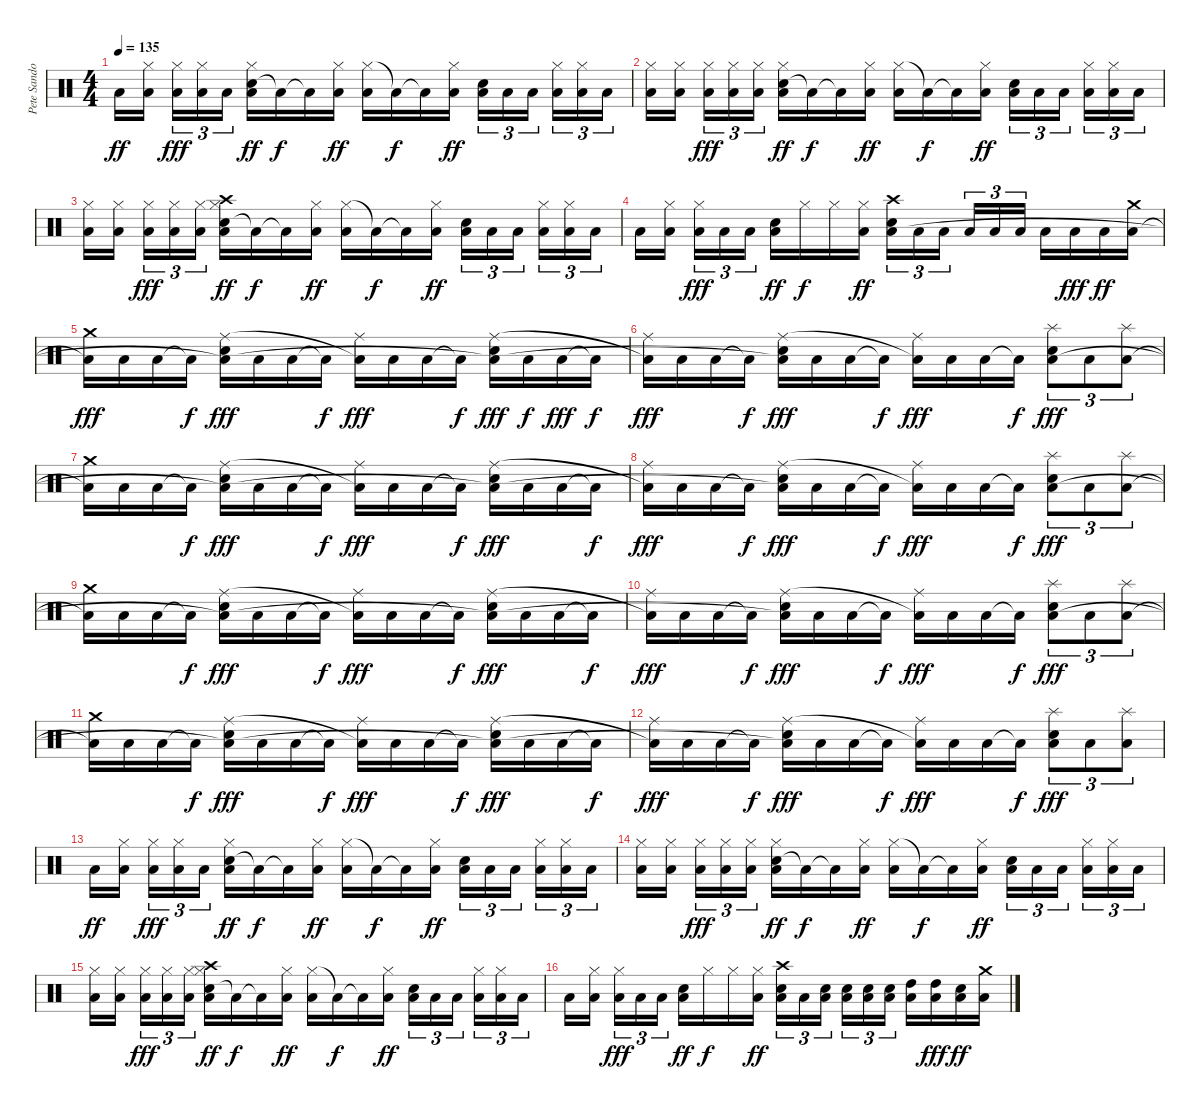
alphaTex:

\track ("Pete Sandoval" "Pete Sando") {instrument percussion}
\staff {score}
\articulation defaults
\ts (4 4)
\tempo 135
\clef neutral
\ks c "Low Floor Tom (hit)".16{dy ff}
("Hi-Hat (closed)" "Low Floor Tom (hit)").16{beam splitsecondary} ("Hi-Hat (closed)" "Low Floor Tom (hit)").16{tu (3 2) dy fff} ("Hi-Hat (closed)" "Low Floor Tom (hit)").16{tu (3 2)} "Low Floor Tom (hit)".16{tu (3 2)} ("Electric Snare (hit)" "Hi-Hat (closed)" "Low Floor Tom (hit)").16{dy ff} "Low Floor Tom (hit)"{t}.16{dy f} "Low Floor Tom (hit)"{t}.16 ("Hi-Hat (closed)" "Low Floor Tom (hit)").16{dy ff} ("Hi-Hat (closed)" "Low Floor Tom (hit)").16 "Low Floor Tom (hit)"{t}.16{dy f} "Low Floor Tom (hit)"{t}.16 ("Hi-Hat (closed)" "Low Floor Tom (hit)").16{dy ff} ("Electric Snare (hit)" "Low Floor Tom (hit)").16{tu (3 2)} "Low Floor Tom (hit)".16{tu (3 2)} "Low Floor Tom (hit)".16{tu (3 2) beam splitsecondary} ("Hi-Hat (closed)" "Low Floor Tom (hit)").16{tu (3 2)} ("Hi-Hat (closed)" "Low Floor Tom (hit)").16{tu (3 2)} "Low Floor Tom (hit)".16{tu (3 2)} |
("Hi-Hat (closed)" "Low Floor Tom (hit)").16 ("Hi-Hat (closed)" "Low Floor Tom (hit)").16{beam splitsecondary} ("Hi-Hat (closed)" "Low Floor Tom (hit)").16{tu (3 2) dy fff} ("Hi-Hat (closed)" "Low Floor Tom (hit)").16{tu (3 2)} ("Hi-Hat (closed)" "Low Floor Tom (hit)").16{tu (3 2)} ("Electric Snare (hit)" "Hi-Hat (closed)" "Low Floor Tom (hit)").16{dy ff} "Low Floor Tom (hit)"{t}.16{dy f} "Low Floor Tom (hit)"{t}.16 ("Hi-Hat (closed)" "Low Floor Tom (hit)").16{dy ff} ("Hi-Hat (closed)" "Low Floor Tom (hit)").16 "Low Floor Tom (hit)"{t}.16{dy f} "Low Floor Tom (hit)"{t}.16 ("Hi-Hat (closed)" "Low Floor Tom (hit)").16{dy ff} ("Electric Snare (hit)" "Low Floor Tom (hit)").16{tu (3 2)} "Low Floor Tom (hit)".16{tu (3 2)} "Low Floor Tom (hit)".16{tu (3 2) beam splitsecondary} ("Hi-Hat (closed)" "Low Floor Tom (hit)").16{tu (3 2)} ("Hi-Hat (closed)" "Low Floor Tom (hit)").16{tu (3 2)} "Low Floor Tom (hit)".16{tu (3 2)} |
("Hi-Hat (closed)" "Low Floor Tom (hit)").16 ("Hi-Hat (closed)" "Low Floor Tom (hit)").16{beam splitsecondary} ("Hi-Hat (closed)" "Low Floor Tom (hit)").16{tu (3 2) dy fff} ("Hi-Hat (closed)" "Low Floor Tom (hit)").16{tu (3 2)} ("Hi-Hat (closed)" "Low Floor Tom (hit)").16{tu (3 2)} ("Electric Snare (hit)" "Crash high (hit)" "Hi-Hat (closed)" "Low Floor Tom (hit)").16{dy ff} "Low Floor Tom (hit)"{t}.16{dy f} "Low Floor Tom (hit)"{t}.16 ("Hi-Hat (closed)" "Low Floor Tom (hit)").16{dy ff} ("Hi-Hat (closed)" "Low Floor Tom (hit)").16 "Low Floor Tom (hit)"{t}.16{dy f} "Low Floor Tom (hit)"{t}.16 ("Hi-Hat (closed)" "Low Floor Tom (hit)").16{dy ff} ("Electric Snare (hit)" "Low Floor Tom (hit)").16{tu (3 2)} "Low Floor Tom (hit)".16{tu (3 2)} "Low Floor Tom (hit)".16{tu (3 2) beam splitsecondary} ("Hi-Hat (closed)" "Low Floor Tom (hit)").16{tu (3 2)} ("Hi-Hat (closed)" "Low Floor Tom (hit)").16{tu (3 2)} "Low Floor Tom (hit)".16{tu (3 2)} |
"Low Floor Tom (hit)".16 ("Hi-Hat (closed)" "Low Floor Tom (hit)").16{beam splitsecondary} ("Hi-Hat (closed)" "Low Floor Tom (hit)").16{tu (3 2) dy fff} "Low Floor Tom (hit)".16{tu (3 2)} "Low Floor Tom (hit)".16{tu (3 2)} ("Electric Snare (hit)" "Low Floor Tom (hit)").16{dy ff} "Hi-Hat (closed)".16{dy f} "Hi-Hat (closed)".16 ("Hi-Hat (closed)" "Low Floor Tom (hit)").16{dy ff} ("Electric Snare (hit)" "Crash high (hit)" "Low Floor Tom (hit)").16{tu (3 2)} "Low Floor Tom (hit)".16{tu (3 2)} "Low Floor Tom (hit)".16{tu (3 2) beam splitsecondary} "Low Floor Tom (hit)".16{tu (3 2)} "Low Floor Tom (hit)".16{tu (3 2)} "Low Floor Tom (hit)".16{tu (3 2)} "Low Floor Tom (hit)".16 "Low Floor Tom (hit)".16{dy fff} "Low Floor Tom (hit)".16{dy ff} ("Crash medium (hit)" "Low Floor Tom (hit)").16 |
("Crash medium (hit)" "Low Floor Tom (hit)"{t}).16{dy fff} "Low Floor Tom (hit)".16 "Low Floor Tom (hit)".16 "Low Floor Tom (hit)"{t}.16{dy f} ("Electric Snare (hit)" "Ride (middle)" "Low Floor Tom (hit)"{t}).16{dy fff} "Low Floor Tom (hit)".16 "Low Floor Tom (hit)".16 "Low Floor Tom (hit)"{t}.16{dy f} ("Ride (middle)" "Low Floor Tom (hit)"{t}).16{dy fff} "Low Floor Tom (hit)".16 "Low Floor Tom (hit)".16 "Low Floor Tom (hit)"{t}.16{dy f} ("Electric Snare (hit)" "Ride (middle)" "Low Floor Tom (hit)"{t}).16{dy fff} "Low Floor Tom (hit)".16{dy f} "Low Floor Tom (hit)".16{dy fff} "Low Floor Tom (hit)"{t}.16{dy f} |
("Ride (middle)" "Low Floor Tom (hit)"{t}).16{dy fff} "Low Floor Tom (hit)".16 "Low Floor Tom (hit)".16 "Low Floor Tom (hit)"{t}.16{dy f} ("Electric Snare (hit)" "Ride (middle)" "Low Floor Tom (hit)"{t}).16{dy fff} "Low Floor Tom (hit)".16 "Low Floor Tom (hit)".16 "Low Floor Tom (hit)"{t}.16{dy f} ("Ride (middle)" "Low Floor Tom (hit)"{t}).16{dy fff} "Low Floor Tom (hit)".16 "Low Floor Tom (hit)".16 "Low Floor Tom (hit)"{t}.16{dy f} ("Electric Snare (hit)" "Splash (hit)" "Low Floor Tom (hit)").8{tu (3 2) dy fff} "Low Floor Tom (hit)".8{tu (3 2)} ("Splash (hit)" "Low Floor Tom (hit)").8{tu (3 2)} |
("Crash medium (hit)" "Low Floor Tom (hit)"{t}).16 "Low Floor Tom (hit)".16 "Low Floor Tom (hit)".16 "Low Floor Tom (hit)"{t}.16{dy f} ("Electric Snare (hit)" "Ride (middle)" "Low Floor Tom (hit)"{t}).16{dy fff} "Low Floor Tom (hit)".16 "Low Floor Tom (hit)".16 "Low Floor Tom (hit)"{t}.16{dy f} ("Ride (middle)" "Low Floor Tom (hit)"{t}).16{dy fff} "Low Floor Tom (hit)".16 "Low Floor Tom (hit)".16 "Low Floor Tom (hit)"{t}.16{dy f} ("Electric Snare (hit)" "Ride (middle)" "Low Floor Tom (hit)"{t}).16{dy fff} "Low Floor Tom (hit)".16 "Low Floor Tom (hit)".16 "Low Floor Tom (hit)"{t}.16{dy f} |
("Ride (middle)" "Low Floor Tom (hit)"{t}).16{dy fff} "Low Floor Tom (hit)".16 "Low Floor Tom (hit)".16 "Low Floor Tom (hit)"{t}.16{dy f} ("Electric Snare (hit)" "Ride (middle)" "Low Floor Tom (hit)"{t}).16{dy fff} "Low Floor Tom (hit)".16 "Low Floor Tom (hit)".16 "Low Floor Tom (hit)"{t}.16{dy f} ("Ride (middle)" "Low Floor Tom (hit)"{t}).16{dy fff} "Low Floor Tom (hit)".16 "Low Floor Tom (hit)".16 "Low Floor Tom (hit)"{t}.16{dy f} ("Electric Snare (hit)" "Splash (hit)" "Low Floor Tom (hit)").8{tu (3 2) dy fff} "Low Floor Tom (hit)".8{tu (3 2)} ("Splash (hit)" "Low Floor Tom (hit)").8{tu (3 2)} |
("Crash medium (hit)" "Low Floor Tom (hit)"{t}).16 "Low Floor Tom (hit)".16 "Low Floor Tom (hit)".16 "Low Floor Tom (hit)"{t}.16{dy f} ("Electric Snare (hit)" "Ride (middle)" "Low Floor Tom (hit)"{t}).16{dy fff} "Low Floor Tom (hit)".16 "Low Floor Tom (hit)".16 "Low Floor Tom (hit)"{t}.16{dy f} ("Ride (middle)" "Low Floor Tom (hit)"{t}).16{dy fff} "Low Floor Tom (hit)".16 "Low Floor Tom (hit)".16 "Low Floor Tom (hit)"{t}.16{dy f} ("Electric Snare (hit)" "Ride (middle)" "Low Floor Tom (hit)"{t}).16{dy fff} "Low Floor Tom (hit)".16 "Low Floor Tom (hit)".16 "Low Floor Tom (hit)"{t}.16{dy f} |
("Ride (middle)" "Low Floor Tom (hit)"{t}).16{dy fff} "Low Floor Tom (hit)".16 "Low Floor Tom (hit)".16 "Low Floor Tom (hit)"{t}.16{dy f} ("Electric Snare (hit)" "Ride (middle)" "Low Floor Tom (hit)"{t}).16{dy fff} "Low Floor Tom (hit)".16 "Low Floor Tom (hit)".16 "Low Floor Tom (hit)"{t}.16{dy f} ("Ride (middle)" "Low Floor Tom (hit)"{t}).16{dy fff} "Low Floor Tom (hit)".16 "Low Floor Tom (hit)".16 "Low Floor Tom (hit)"{t}.16{dy f} ("Electric Snare (hit)" "Splash (hit)" "Low Floor Tom (hit)").8{tu (3 2) dy fff} "Low Floor Tom (hit)".8{tu (3 2)} ("Splash (hit)" "Low Floor Tom (hit)").8{tu (3 2)} |
("Crash medium (hit)" "Low Floor Tom (hit)"{t}).16 "Low Floor Tom (hit)".16 "Low Floor Tom (hit)".16 "Low Floor Tom (hit)"{t}.16{dy f} ("Electric Snare (hit)" "Ride (middle)" "Low Floor Tom (hit)"{t}).16{dy fff} "Low Floor Tom (hit)".16 "Low Floor Tom (hit)".16 "Low Floor Tom (hit)"{t}.16{dy f} ("Ride (middle)" "Low Floor Tom (hit)"{t}).16{dy fff} "Low Floor Tom (hit)".16 "Low Floor Tom (hit)".16 "Low Floor Tom (hit)"{t}.16{dy f} ("Electric Snare (hit)" "Ride (middle)" "Low Floor Tom (hit)"{t}).16{dy fff} "Low Floor Tom (hit)".16 "Low Floor Tom (hit)".16 "Low Floor Tom (hit)"{t}.16{dy f} |
("Ride (middle)" "Low Floor Tom (hit)"{t}).16{dy fff} "Low Floor Tom (hit)".16 "Low Floor Tom (hit)".16 "Low Floor Tom (hit)"{t}.16{dy f} ("Electric Snare (hit)" "Ride (middle)" "Low Floor Tom (hit)"{t}).16{dy fff} "Low Floor Tom (hit)".16 "Low Floor Tom (hit)".16 "Low Floor Tom (hit)"{t}.16{dy f} ("Ride (middle)" "Low Floor Tom (hit)"{t}).16{dy fff} "Low Floor Tom (hit)".16 "Low Floor Tom (hit)".16 "Low Floor Tom (hit)"{t}.16{dy f} ("Electric Snare (hit)" "Splash (hit)" "Low Floor Tom (hit)").8{tu (3 2) dy fff} "Low Floor Tom (hit)".8{tu (3 2)} ("Splash (hit)" "Low Floor Tom (hit)").8{tu (3 2)} |
"Low Floor Tom (hit)".16{dy ff} ("Hi-Hat (closed)" "Low Floor Tom (hit)").16{beam splitsecondary} ("Hi-Hat (closed)" "Low Floor Tom (hit)").16{tu (3 2) dy fff} ("Hi-Hat (closed)" "Low Floor Tom (hit)").16{tu (3 2)} "Low Floor Tom (hit)".16{tu (3 2)} ("Electric Snare (hit)" "Hi-Hat (closed)" "Low Floor Tom (hit)").16{dy ff} "Low Floor Tom (hit)"{t}.16{dy f} "Low Floor Tom (hit)"{t}.16 ("Hi-Hat (closed)" "Low Floor Tom (hit)").16{dy ff} ("Hi-Hat (closed)" "Low Floor Tom (hit)").16 "Low Floor Tom (hit)"{t}.16{dy f} "Low Floor Tom (hit)"{t}.16 ("Hi-Hat (closed)" "Low Floor Tom (hit)").16{dy ff} ("Electric Snare (hit)" "Low Floor Tom (hit)").16{tu (3 2)} "Low Floor Tom (hit)".16{tu (3 2)} "Low Floor Tom (hit)".16{tu (3 2) beam splitsecondary} ("Hi-Hat (closed)" "Low Floor Tom (hit)").16{tu (3 2)} ("Hi-Hat (closed)" "Low Floor Tom (hit)").16{tu (3 2)} "Low Floor Tom (hit)".16{tu (3 2)} |
("Hi-Hat (closed)" "Low Floor Tom (hit)").16 ("Hi-Hat (closed)" "Low Floor Tom (hit)").16{beam splitsecondary} ("Hi-Hat (closed)" "Low Floor Tom (hit)").16{tu (3 2) dy fff} ("Hi-Hat (closed)" "Low Floor Tom (hit)").16{tu (3 2)} ("Hi-Hat (closed)" "Low Floor Tom (hit)").16{tu (3 2)} ("Electric Snare (hit)" "Hi-Hat (closed)" "Low Floor Tom (hit)").16{dy ff} "Low Floor Tom (hit)"{t}.16{dy f} "Low Floor Tom (hit)"{t}.16 ("Hi-Hat (closed)" "Low Floor Tom (hit)").16{dy ff} ("Hi-Hat (closed)" "Low Floor Tom (hit)").16 "Low Floor Tom (hit)"{t}.16{dy f} "Low Floor Tom (hit)"{t}.16 ("Hi-Hat (closed)" "Low Floor Tom (hit)").16{dy ff} ("Electric Snare (hit)" "Low Floor Tom (hit)").16{tu (3 2)} "Low Floor Tom (hit)".16{tu (3 2)} "Low Floor Tom (hit)".16{tu (3 2) beam splitsecondary} ("Hi-Hat (closed)" "Low Floor Tom (hit)").16{tu (3 2)} ("Hi-Hat (closed)" "Low Floor Tom (hit)").16{tu (3 2)} "Low Floor Tom (hit)".16{tu (3 2)} |
("Hi-Hat (closed)" "Low Floor Tom (hit)").16 ("Hi-Hat (closed)" "Low Floor Tom (hit)").16{beam splitsecondary} ("Hi-Hat (closed)" "Low Floor Tom (hit)").16{tu (3 2) dy fff} ("Hi-Hat (closed)" "Low Floor Tom (hit)").16{tu (3 2)} ("Hi-Hat (closed)" "Low Floor Tom (hit)").16{tu (3 2)} ("Electric Snare (hit)" "Crash high (hit)" "Hi-Hat (closed)" "Low Floor Tom (hit)").16{dy ff} "Low Floor Tom (hit)"{t}.16{dy f} "Low Floor Tom (hit)"{t}.16 ("Hi-Hat (closed)" "Low Floor Tom (hit)").16{dy ff} ("Hi-Hat (closed)" "Low Floor Tom (hit)").16 "Low Floor Tom (hit)"{t}.16{dy f} "Low Floor Tom (hit)"{t}.16 ("Hi-Hat (closed)" "Low Floor Tom (hit)").16{dy ff} ("Electric Snare (hit)" "Low Floor Tom (hit)").16{tu (3 2)} "Low Floor Tom (hit)".16{tu (3 2)} "Low Floor Tom (hit)".16{tu (3 2) beam splitsecondary} ("Hi-Hat (closed)" "Low Floor Tom (hit)").16{tu (3 2)} ("Hi-Hat (closed)" "Low Floor Tom (hit)").16{tu (3 2)} "Low Floor Tom (hit)".16{tu (3 2)} |
"Low Floor Tom (hit)".16 ("Hi-Hat (closed)" "Low Floor Tom (hit)").16{beam splitsecondary} ("Hi-Hat (closed)" "Low Floor Tom (hit)").16{tu (3 2) dy fff} "Low Floor Tom (hit)".16{tu (3 2)} "Low Floor Tom (hit)".16{tu (3 2)} ("Electric Snare (hit)" "Low Floor Tom (hit)").16{dy ff} "Hi-Hat (closed)".16{dy f} "Hi-Hat (closed)".16 ("Hi-Hat (closed)" "Low Floor Tom (hit)").16{dy ff} ("Electric Snare (hit)" "Crash high (hit)" "Low Floor Tom (hit)").16{tu (3 2)} "Low Floor Tom (hit)".16{tu (3 2)} ("Electric Snare (hit)" "Low Floor Tom (hit)").16{tu (3 2) beam splitsecondary} ("Electric Snare (hit)" "Low Floor Tom (hit)").16{tu (3 2)} ("Electric Snare (hit)" "Low Floor Tom (hit)").16{tu (3 2)} ("Electric Snare (hit)" "Low Floor Tom (hit)").16{tu (3 2)} ("High Tom (hit)" "Low Floor Tom (hit)").16 ("High Tom (hit)" "Low Floor Tom (hit)").16{dy fff} ("Electric Snare (hit)" "Low Floor Tom (hit)").16{dy ff} ("Crash medium (hit)" "Low Floor Tom (hit)").16
